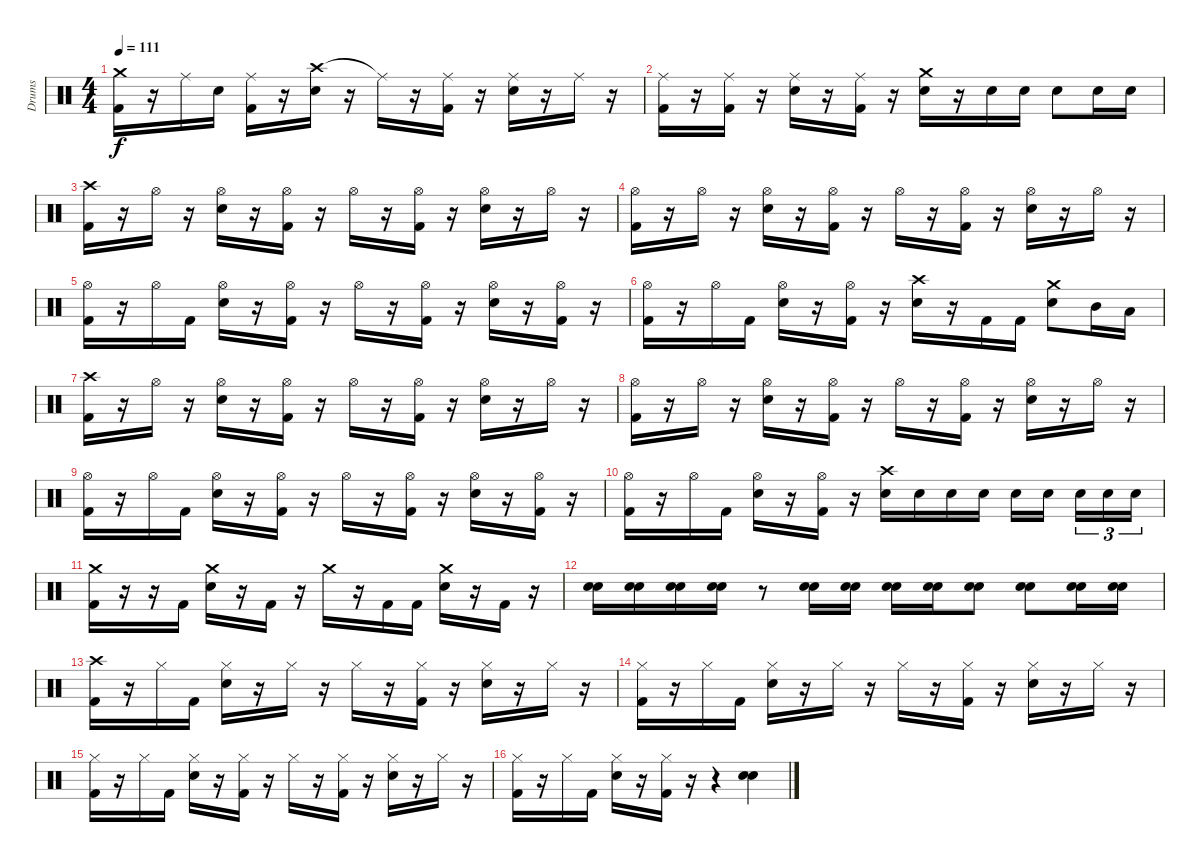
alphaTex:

\track ("Drums" "Drums") {instrument percussion}
\staff {score}
\articulation defaults
\ts (4 4)
\tempo 111
\clef neutral
\ks c
("Crash medium (hit)" "Kick (hit) 2").16{dy f} r.16 "Ride (middle)".16 "Snare (hit) 2".16 ("Ride (middle)" "Kick (hit) 2").16 r.16 ("Crash high (hit)" "Snare (hit) 2").16 r.16 "Ride (middle)"{t}.16 r.16 ("Ride (middle)" "Kick (hit) 2").16 r.16 ("Ride (middle)" "Snare (hit) 2").16 r.16 "Ride (middle)".16 r.16 |
("Ride (middle)" "Kick (hit) 2").16 r.16 ("Ride (middle)" "Kick (hit) 2").16 r.16 ("Ride (middle)" "Snare (hit) 2").16 r.16 ("Ride (middle)" "Kick (hit) 2").16 r.16 ("Crash medium (hit)" "Snare (hit) 2").16 r.16 "Snare (hit) 2".16 "Snare (hit) 2".16 "Snare (hit) 2".8 "Snare (hit) 2".16 "Snare (hit) 2".16 |
("Crash high (hit)" "Kick (hit) 2").16 r.16 "Hi-Hat (open)".16 r.16 ("Hi-Hat (open)" "Snare (hit) 2").16 r.16 ("Hi-Hat (open)" "Kick (hit) 2").16 r.16 "Hi-Hat (open)".16 r.16 ("Hi-Hat (open)" "Kick (hit) 2").16 r.16 ("Hi-Hat (open)" "Snare (hit) 2").16 r.16 "Hi-Hat (open)".16 r.16 |
("Hi-Hat (open)" "Kick (hit) 2").16 r.16 "Hi-Hat (open)".16 r.16 ("Hi-Hat (open)" "Snare (hit) 2").16 r.16 ("Hi-Hat (open)" "Kick (hit) 2").16 r.16 "Hi-Hat (open)".16 r.16 ("Hi-Hat (open)" "Kick (hit) 2").16 r.16 ("Hi-Hat (open)" "Snare (hit) 2").16 r.16 "Hi-Hat (open)".16 r.16 |
("Hi-Hat (open)" "Kick (hit) 2").16 r.16 "Hi-Hat (open)".16 "Kick (hit) 2".16 ("Hi-Hat (open)" "Snare (hit) 2").16 r.16 ("Hi-Hat (open)" "Kick (hit) 2").16 r.16 "Hi-Hat (open)".16 r.16 ("Hi-Hat (open)" "Kick (hit) 2").16 r.16 ("Hi-Hat (open)" "Snare (hit) 2").16 r.16 ("Hi-Hat (open)" "Kick (hit) 2").16 r.16 |
("Hi-Hat (open)" "Kick (hit) 2").16 r.16 "Hi-Hat (open)".16 "Kick (hit) 2".16 ("Hi-Hat (open)" "Snare (hit) 2").16 r.16 ("Hi-Hat (open)" "Kick (hit) 2").16 r.16 ("Crash high (hit)" "Snare (hit) 2").16 r.16 "Kick (hit) 2".16 "Kick (hit) 2".16 ("Crash medium (hit)" "Snare (hit) 2").8 "Mid Tom (hit)".16 "Low Tom (hit)".16 |
("Crash high (hit)" "Kick (hit) 2").16 r.16 "Hi-Hat (open)".16 r.16 ("Hi-Hat (open)" "Snare (hit) 2").16 r.16 ("Hi-Hat (open)" "Kick (hit) 2").16 r.16 "Hi-Hat (open)".16 r.16 ("Hi-Hat (open)" "Kick (hit) 2").16 r.16 ("Hi-Hat (open)" "Snare (hit) 2").16 r.16 "Hi-Hat (open)".16 r.16 |
("Hi-Hat (open)" "Kick (hit) 2").16 r.16 "Hi-Hat (open)".16 r.16 ("Hi-Hat (open)" "Snare (hit) 2").16 r.16 ("Hi-Hat (open)" "Kick (hit) 2").16 r.16 "Hi-Hat (open)".16 r.16 ("Hi-Hat (open)" "Kick (hit) 2").16 r.16 ("Hi-Hat (open)" "Snare (hit) 2").16 r.16 "Hi-Hat (open)".16 r.16 |
("Hi-Hat (open)" "Kick (hit) 2").16 r.16 "Hi-Hat (open)".16 "Kick (hit) 2".16 ("Hi-Hat (open)" "Snare (hit) 2").16 r.16 ("Hi-Hat (open)" "Kick (hit) 2").16 r.16 "Hi-Hat (open)".16 r.16 ("Hi-Hat (open)" "Kick (hit) 2").16 r.16 ("Hi-Hat (open)" "Snare (hit) 2").16 r.16 ("Hi-Hat (open)" "Kick (hit) 2").16 r.16 |
("Hi-Hat (open)" "Kick (hit) 2").16 r.16 "Hi-Hat (open)".16 "Kick (hit) 2".16 ("Hi-Hat (open)" "Snare (hit) 2").16 r.16 ("Hi-Hat (open)" "Kick (hit) 2").16 r.16 ("Crash high (hit)" "Snare (hit) 2").16 "Snare (hit) 2".16 "Snare (hit) 2".16 "Snare (hit) 2".16 "Snare (hit) 2".16 "Snare (hit) 2".16 "Snare (hit) 2".16{tu (3 2)} "Snare (hit) 2".16{tu (3 2)} "Snare (hit) 2".16{tu (3 2)} |
("Crash medium (hit)" "Kick (hit) 2").16 r.16 r.16 "Kick (hit) 2".16 ("Crash medium (hit)" "Snare (hit) 2").16 r.16 "Kick (hit) 2".16 r.16 "Crash medium (hit)".16 r.16 "Kick (hit) 2".16 "Kick (hit) 2".16 ("Crash medium (hit)" "Snare (hit) 2").16 r.16 "Kick (hit) 2".16 r.16 |
("Snare (hit) 2" "Snare (hit) 2").16 ("Snare (hit) 2" "Snare (hit) 2").16 ("Snare (hit) 2" "Snare (hit) 2").16 ("Snare (hit) 2" "Snare (hit) 2").16 r.8 ("Snare (hit) 2" "Snare (hit) 2").16 ("Snare (hit) 2" "Snare (hit) 2").16 ("Snare (hit) 2" "Snare (hit) 2").16 ("Snare (hit) 2" "Snare (hit) 2").16 ("Snare (hit) 2" "Snare (hit) 2").8 ("Snare (hit) 2" "Snare (hit) 2").8 ("Snare (hit) 2" "Snare (hit) 2").16 ("Snare (hit) 2" "Snare (hit) 2").16 |
("Crash high (hit)" "Kick (hit) 2").16 r.16 "Hi-Hat (closed)".16 "Kick (hit) 2".16 ("Hi-Hat (closed)" "Snare (hit) 2").16 r.16 "Hi-Hat (closed)".16 r.16 "Hi-Hat (closed)".16 r.16 ("Hi-Hat (closed)" "Kick (hit) 2").16 r.16 ("Hi-Hat (closed)" "Snare (hit) 2").16 r.16 "Hi-Hat (closed)".16 r.16 |
("Hi-Hat (closed)" "Kick (hit) 2").16 r.16 "Hi-Hat (closed)".16 "Kick (hit) 2".16 ("Hi-Hat (closed)" "Snare (hit) 2").16 r.16 "Hi-Hat (closed)".16 r.16 "Hi-Hat (closed)".16 r.16 ("Hi-Hat (closed)" "Kick (hit) 2").16 r.16 ("Hi-Hat (closed)" "Snare (hit) 2").16 r.16 "Hi-Hat (closed)".16 r.16 |
("Hi-Hat (closed)" "Kick (hit) 2").16 r.16 "Hi-Hat (closed)".16 "Kick (hit) 2".16 ("Hi-Hat (closed)" "Snare (hit) 2").16 r.16 ("Hi-Hat (closed)" "Kick (hit) 2").16 r.16 "Hi-Hat (closed)".16 r.16 ("Hi-Hat (closed)" "Kick (hit) 2").16 r.16 ("Hi-Hat (closed)" "Snare (hit) 2").16 r.16 "Hi-Hat (closed)".16 r.16 |
("Hi-Hat (closed)" "Kick (hit) 2").16 r.16 "Hi-Hat (closed)".16 "Kick (hit) 2".16 ("Hi-Hat (closed)" "Snare (hit) 2").16 r.16 ("Hi-Hat (closed)" "Kick (hit) 2").16 r.16 r.4 ("Snare (hit) 2" "Snare (hit) 2").4
